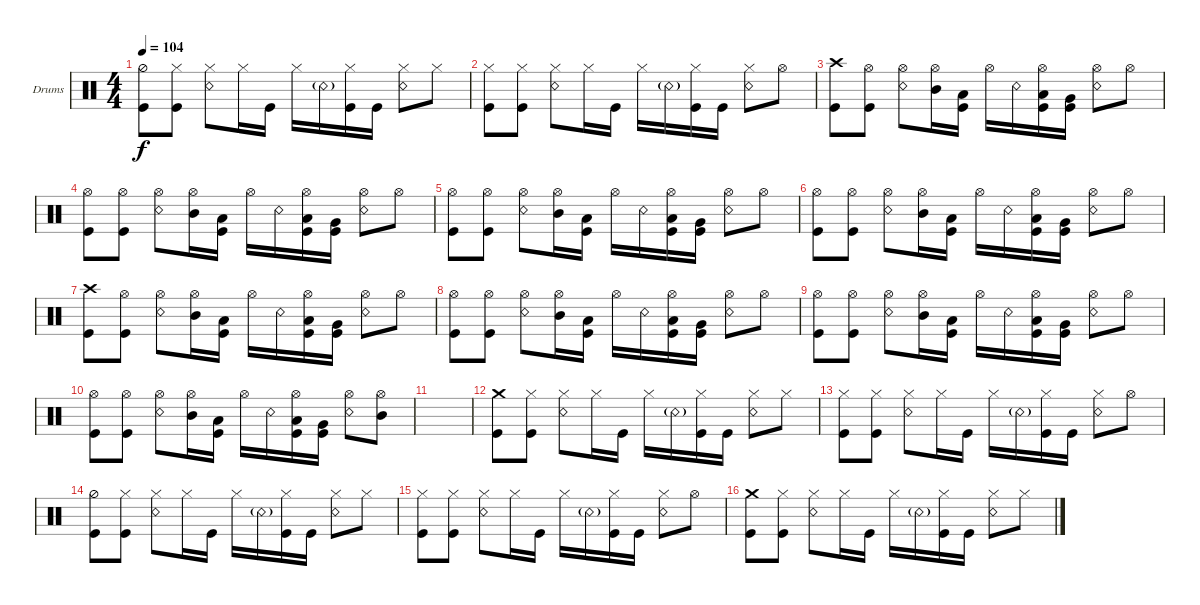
\defaultSystemsLayout 4
\bracketExtendMode groupsimilarinstruments
\firstSystemTrackNameOrientation horizontal
\otherSystemsTrackNameOrientation horizontal
\track ("Drumkit" "Drums") {instrument percussion}
\staff {score}
\articulation defaults
\ts (4 4)
\tempo 104
\clef neutral
\ks c
("Kick (hit)" "Hi-Hat (half)").8{dy f} ("Kick (hit)" "Hi-Hat (closed)").8 ("Snare (rim shot)" "Hi-Hat (closed)").8 "Hi-Hat (closed)".16 "Kick (hit)".16 "Hi-Hat (closed)".16 "Snare (rim shot)"{g}.16 ("Kick (hit)" "Hi-Hat (closed)").16 "Kick (hit)".16 ("Hi-Hat (closed)" "Snare (rim shot)").8 "Hi-Hat (closed)".8 |
("Kick (hit)" "Hi-Hat (closed)").8 ("Kick (hit)" "Hi-Hat (closed)").8 ("Snare (rim shot)" "Hi-Hat (closed)").8 "Hi-Hat (closed)".16 "Kick (hit)".16 "Hi-Hat (closed)".16 "Snare (rim shot)"{g}.16 ("Kick (hit)" "Hi-Hat (closed)").16 "Kick (hit)".16 ("Snare (rim shot)" "Hi-Hat (closed)").8 "Hi-Hat (open)".8 |
("Kick (hit)" "Crash high (hit)").8 ("Kick (hit)" "Hi-Hat (open)").8 ("Snare (rim shot)" "Hi-Hat (open)").8 ("Mid Tom (hit)" "Hi-Hat (open)").16 ("Low Tom (hit)" "Kick (hit)").16 "Hi-Hat (open)".16 "Snare (rim shot)".16 ("Low Tom (hit)" "Kick (hit)" "Hi-Hat (open)").16 ("Very Low Tom (hit)" "Kick (hit)").16 ("Snare (rim shot)" "Hi-Hat (open)").8 "Hi-Hat (open)".8 |
("Kick (hit)" "Hi-Hat (open)").8 ("Kick (hit)" "Hi-Hat (open)").8 ("Snare (rim shot)" "Hi-Hat (open)").8 ("Mid Tom (hit)" "Hi-Hat (open)").16 ("Low Tom (hit)" "Kick (hit)").16 "Hi-Hat (open)".16 "Snare (rim shot)".16 ("Low Tom (hit)" "Kick (hit)" "Hi-Hat (open)").16 ("Very Low Tom (hit)" "Kick (hit)").16 ("Snare (rim shot)" "Hi-Hat (open)").8 "Hi-Hat (open)".8 |
("Kick (hit)" "Hi-Hat (open)").8 ("Kick (hit)" "Hi-Hat (open)").8 ("Snare (rim shot)" "Hi-Hat (open)").8 ("Mid Tom (hit)" "Hi-Hat (open)").16 ("Low Tom (hit)" "Kick (hit)").16 "Hi-Hat (open)".16 "Snare (rim shot)".16 ("Low Tom (hit)" "Kick (hit)" "Hi-Hat (open)").16 ("Very Low Tom (hit)" "Kick (hit)").16 ("Snare (rim shot)" "Hi-Hat (open)").8 "Hi-Hat (open)".8 |
("Kick (hit)" "Hi-Hat (open)").8 ("Kick (hit)" "Hi-Hat (open)").8 ("Snare (rim shot)" "Hi-Hat (open)").8 ("Mid Tom (hit)" "Hi-Hat (open)").16 ("Low Tom (hit)" "Kick (hit)").16 "Hi-Hat (open)".16 "Snare (rim shot)".16 ("Low Tom (hit)" "Kick (hit)" "Hi-Hat (open)").16 ("Very Low Tom (hit)" "Kick (hit)").16 ("Snare (rim shot)" "Hi-Hat (open)").8 "Hi-Hat (open)".8 |
("Kick (hit)" "Crash high (hit)").8 ("Kick (hit)" "Hi-Hat (open)").8 ("Snare (rim shot)" "Hi-Hat (open)").8 ("Mid Tom (hit)" "Hi-Hat (open)").16 ("Low Tom (hit)" "Kick (hit)").16 "Hi-Hat (open)".16 "Snare (rim shot)".16 ("Low Tom (hit)" "Kick (hit)" "Hi-Hat (open)").16 ("Very Low Tom (hit)" "Kick (hit)").16 ("Snare (rim shot)" "Hi-Hat (open)").8 "Hi-Hat (open)".8 |
("Kick (hit)" "Hi-Hat (open)").8 ("Kick (hit)" "Hi-Hat (open)").8 ("Snare (rim shot)" "Hi-Hat (open)").8 ("Mid Tom (hit)" "Hi-Hat (open)").16 ("Low Tom (hit)" "Kick (hit)").16 "Hi-Hat (open)".16 "Snare (rim shot)".16 ("Low Tom (hit)" "Kick (hit)" "Hi-Hat (open)").16 ("Very Low Tom (hit)" "Kick (hit)").16 ("Snare (rim shot)" "Hi-Hat (open)").8 "Hi-Hat (open)".8 |
("Kick (hit)" "Hi-Hat (open)").8 ("Kick (hit)" "Hi-Hat (open)").8 ("Snare (rim shot)" "Hi-Hat (open)").8 ("Mid Tom (hit)" "Hi-Hat (open)").16 ("Low Tom (hit)" "Kick (hit)").16 "Hi-Hat (open)".16 "Snare (rim shot)".16 ("Low Tom (hit)" "Kick (hit)" "Hi-Hat (open)").16 ("Very Low Tom (hit)" "Kick (hit)").16 ("Snare (rim shot)" "Hi-Hat (open)").8 "Hi-Hat (open)".8 |
("Kick (hit)" "Hi-Hat (open)").8 ("Kick (hit)" "Hi-Hat (open)").8 ("Snare (rim shot)" "Hi-Hat (open)").8 ("Mid Tom (hit)" "Hi-Hat (open)").16 ("Low Tom (hit)" "Kick (hit)").16 "Hi-Hat (open)".16 "Snare (rim shot)".16 ("Low Tom (hit)" "Kick (hit)" "Hi-Hat (open)").16 ("Very Low Tom (hit)" "Kick (hit)").16 ("Hi-Hat (open)" "Snare (rim shot)").8 ("Hi-Hat (open)" "Mid Tom (hit)").8 |
|
("Crash medium (hit)" "Kick (hit)").8 ("Kick (hit)" "Hi-Hat (closed)").8 ("Snare (rim shot)" "Hi-Hat (closed)").8 "Hi-Hat (closed)".16 "Kick (hit)".16 "Hi-Hat (closed)".16 "Snare (rim shot)"{g}.16 ("Kick (hit)" "Hi-Hat (closed)").16 "Kick (hit)".16 ("Hi-Hat (closed)" "Snare (rim shot)").8 "Hi-Hat (closed)".8 |
("Kick (hit)" "Hi-Hat (closed)").8 ("Kick (hit)" "Hi-Hat (closed)").8 ("Snare (rim shot)" "Hi-Hat (closed)").8 "Hi-Hat (closed)".16 "Kick (hit)".16 "Hi-Hat (closed)".16 "Snare (rim shot)"{g}.16 ("Kick (hit)" "Hi-Hat (closed)").16 "Kick (hit)".16 ("Snare (rim shot)" "Hi-Hat (closed)").8 "Hi-Hat (open)".8 |
("Kick (hit)" "Hi-Hat (half)").8 ("Kick (hit)" "Hi-Hat (closed)").8 ("Snare (rim shot)" "Hi-Hat (closed)").8 "Hi-Hat (closed)".16 "Kick (hit)".16 "Hi-Hat (closed)".16 "Snare (rim shot)"{g}.16 ("Kick (hit)" "Hi-Hat (closed)").16 "Kick (hit)".16 ("Hi-Hat (closed)" "Snare (rim shot)").8 "Hi-Hat (closed)".8 |
("Kick (hit)" "Hi-Hat (closed)").8 ("Kick (hit)" "Hi-Hat (closed)").8 ("Snare (rim shot)" "Hi-Hat (closed)").8 "Hi-Hat (closed)".16 "Kick (hit)".16 "Hi-Hat (closed)".16 "Snare (rim shot)"{g}.16 ("Kick (hit)" "Hi-Hat (closed)").16 "Kick (hit)".16 ("Snare (rim shot)" "Hi-Hat (closed)").8 "Hi-Hat (open)".8 |
("Crash medium (hit)" "Kick (hit)").8 ("Kick (hit)" "Hi-Hat (closed)").8 ("Snare (rim shot)" "Hi-Hat (closed)").8 "Hi-Hat (closed)".16 "Kick (hit)".16 "Hi-Hat (closed)".16 "Snare (rim shot)"{g}.16 ("Kick (hit)" "Hi-Hat (closed)").16 "Kick (hit)".16 ("Hi-Hat (closed)" "Snare (rim shot)").8 "Hi-Hat (closed)".8
